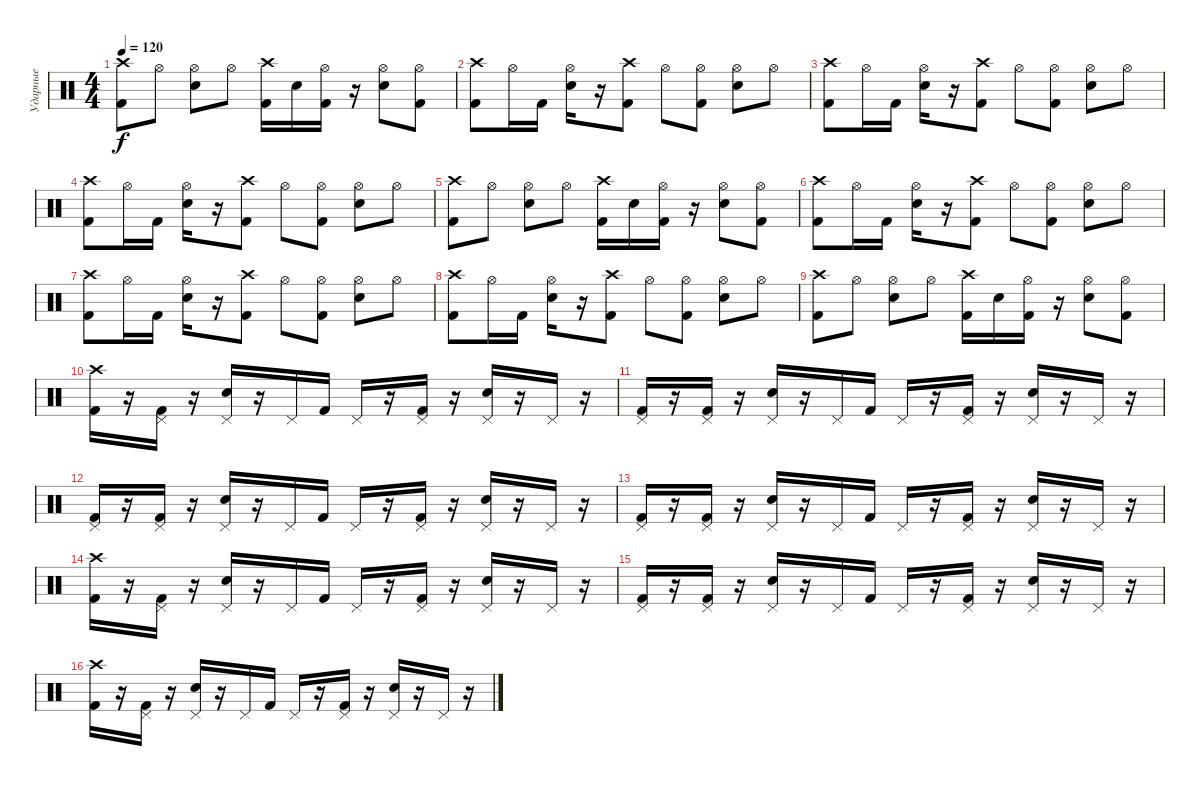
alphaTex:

\track ("Ударные" "Ударные") {instrument percussion}
\staff {score}
\articulation defaults
\ts (4 4)
\tempo 120
\clef neutral
\ks c
("Crash high (hit)" "Kick (hit) 2").8{dy f} "Hi-Hat (open)".8 ("Hi-Hat (open)" "Electric Snare (hit)").8 "Hi-Hat (open)".8 ("Crash high (hit)" "Kick (hit) 2").16 "Electric Snare (hit)".16 ("Hi-Hat (open)" "Kick (hit) 2").16 r.16 ("Hi-Hat (open)" "Electric Snare (hit)").8 ("Hi-Hat (open)" "Kick (hit) 2").8 |
("Crash high (hit)" "Kick (hit) 2").8 "Hi-Hat (open)".16 "Kick (hit) 2".16 ("Hi-Hat (open)" "Electric Snare (hit)").16 r.16 ("Crash high (hit)" "Kick (hit) 2").8 "Hi-Hat (open)".8 ("Hi-Hat (open)" "Kick (hit) 2").8 ("Hi-Hat (open)" "Electric Snare (hit)").8 "Hi-Hat (open)".8 |
("Crash high (hit)" "Kick (hit) 2").8 "Hi-Hat (open)".16 "Kick (hit) 2".16 ("Hi-Hat (open)" "Electric Snare (hit)").16 r.16 ("Crash high (hit)" "Kick (hit) 2").8 "Hi-Hat (open)".8 ("Hi-Hat (open)" "Kick (hit) 2").8 ("Hi-Hat (open)" "Electric Snare (hit)").8 "Hi-Hat (open)".8 |
("Crash high (hit)" "Kick (hit) 2").8 "Hi-Hat (open)".16 "Kick (hit) 2".16 ("Hi-Hat (open)" "Electric Snare (hit)").16 r.16 ("Crash high (hit)" "Kick (hit) 2").8 "Hi-Hat (open)".8 ("Hi-Hat (open)" "Kick (hit) 2").8 ("Hi-Hat (open)" "Electric Snare (hit)").8 "Hi-Hat (open)".8 |
("Crash high (hit)" "Kick (hit) 2").8 "Hi-Hat (open)".8 ("Hi-Hat (open)" "Electric Snare (hit)").8 "Hi-Hat (open)".8 ("Crash high (hit)" "Kick (hit) 2").16 "Electric Snare (hit)".16 ("Hi-Hat (open)" "Kick (hit) 2").16 r.16 ("Hi-Hat (open)" "Electric Snare (hit)").8 ("Hi-Hat (open)" "Kick (hit) 2").8 |
("Crash high (hit)" "Kick (hit) 2").8 "Hi-Hat (open)".16 "Kick (hit) 2".16 ("Hi-Hat (open)" "Electric Snare (hit)").16 r.16 ("Crash high (hit)" "Kick (hit) 2").8 "Hi-Hat (open)".8 ("Hi-Hat (open)" "Kick (hit) 2").8 ("Hi-Hat (open)" "Electric Snare (hit)").8 "Hi-Hat (open)".8 |
("Crash high (hit)" "Kick (hit) 2").8 "Hi-Hat (open)".16 "Kick (hit) 2".16 ("Hi-Hat (open)" "Electric Snare (hit)").16 r.16 ("Crash high (hit)" "Kick (hit) 2").8 "Hi-Hat (open)".8 ("Hi-Hat (open)" "Kick (hit) 2").8 ("Hi-Hat (open)" "Electric Snare (hit)").8 "Hi-Hat (open)".8 |
("Crash high (hit)" "Kick (hit) 2").8 "Hi-Hat (open)".16 "Kick (hit) 2".16 ("Hi-Hat (open)" "Electric Snare (hit)").16 r.16 ("Crash high (hit)" "Kick (hit) 2").8 "Hi-Hat (open)".8 ("Hi-Hat (open)" "Kick (hit) 2").8 ("Hi-Hat (open)" "Electric Snare (hit)").8 "Hi-Hat (open)".8 |
("Crash high (hit)" "Kick (hit) 2").8 "Hi-Hat (open)".8 ("Hi-Hat (open)" "Electric Snare (hit)").8 "Hi-Hat (open)".8 ("Crash high (hit)" "Kick (hit) 2").16 "Electric Snare (hit)".16 ("Hi-Hat (open)" "Kick (hit) 2").16 r.16 ("Hi-Hat (open)" "Electric Snare (hit)").8 ("Hi-Hat (open)" "Kick (hit) 2").8 |
("Crash high (hit)" "Kick (hit) 2").16 r.16 ("Pedal Hi-Hat (hit)" "Kick (hit) 2").16 r.16 ("Pedal Hi-Hat (hit)" "Electric Snare (hit)").16 r.16 "Pedal Hi-Hat (hit)".16 "Kick (hit) 2".16 "Pedal Hi-Hat (hit)".16 r.16 ("Pedal Hi-Hat (hit)" "Kick (hit) 2").16 r.16 ("Pedal Hi-Hat (hit)" "Electric Snare (hit)").16 r.16 "Pedal Hi-Hat (hit)".16 r.16 |
("Pedal Hi-Hat (hit)" "Kick (hit) 2").16 r.16 ("Pedal Hi-Hat (hit)" "Kick (hit) 2").16 r.16 ("Pedal Hi-Hat (hit)" "Electric Snare (hit)").16 r.16 "Pedal Hi-Hat (hit)".16 "Kick (hit) 2".16 "Pedal Hi-Hat (hit)".16 r.16 ("Pedal Hi-Hat (hit)" "Kick (hit) 2").16 r.16 ("Pedal Hi-Hat (hit)" "Electric Snare (hit)").16 r.16 "Pedal Hi-Hat (hit)".16 r.16 |
("Pedal Hi-Hat (hit)" "Kick (hit) 2").16 r.16 ("Pedal Hi-Hat (hit)" "Kick (hit) 2").16 r.16 ("Pedal Hi-Hat (hit)" "Electric Snare (hit)").16 r.16 "Pedal Hi-Hat (hit)".16 "Kick (hit) 2".16 "Pedal Hi-Hat (hit)".16 r.16 ("Pedal Hi-Hat (hit)" "Kick (hit) 2").16 r.16 ("Pedal Hi-Hat (hit)" "Electric Snare (hit)").16 r.16 "Pedal Hi-Hat (hit)".16 r.16 |
("Pedal Hi-Hat (hit)" "Kick (hit) 2").16 r.16 ("Pedal Hi-Hat (hit)" "Kick (hit) 2").16 r.16 ("Pedal Hi-Hat (hit)" "Electric Snare (hit)").16 r.16 "Pedal Hi-Hat (hit)".16 "Kick (hit) 2".16 "Pedal Hi-Hat (hit)".16 r.16 ("Pedal Hi-Hat (hit)" "Kick (hit) 2").16 r.16 ("Pedal Hi-Hat (hit)" "Electric Snare (hit)").16 r.16 "Pedal Hi-Hat (hit)".16 r.16 |
("Crash high (hit)" "Kick (hit) 2").16 r.16 ("Pedal Hi-Hat (hit)" "Kick (hit) 2").16 r.16 ("Pedal Hi-Hat (hit)" "Electric Snare (hit)").16 r.16 "Pedal Hi-Hat (hit)".16 "Kick (hit) 2".16 "Pedal Hi-Hat (hit)".16 r.16 ("Pedal Hi-Hat (hit)" "Kick (hit) 2").16 r.16 ("Pedal Hi-Hat (hit)" "Electric Snare (hit)").16 r.16 "Pedal Hi-Hat (hit)".16 r.16 |
("Pedal Hi-Hat (hit)" "Kick (hit) 2").16 r.16 ("Pedal Hi-Hat (hit)" "Kick (hit) 2").16 r.16 ("Pedal Hi-Hat (hit)" "Electric Snare (hit)").16 r.16 "Pedal Hi-Hat (hit)".16 "Kick (hit) 2".16 "Pedal Hi-Hat (hit)".16 r.16 ("Pedal Hi-Hat (hit)" "Kick (hit) 2").16 r.16 ("Pedal Hi-Hat (hit)" "Electric Snare (hit)").16 r.16 "Pedal Hi-Hat (hit)".16 r.16 |
("Crash high (hit)" "Kick (hit) 2").16 r.16 ("Pedal Hi-Hat (hit)" "Kick (hit) 2").16 r.16 ("Pedal Hi-Hat (hit)" "Electric Snare (hit)").16 r.16 "Pedal Hi-Hat (hit)".16 "Kick (hit) 2".16 "Pedal Hi-Hat (hit)".16 r.16 ("Pedal Hi-Hat (hit)" "Kick (hit) 2").16 r.16 ("Pedal Hi-Hat (hit)" "Electric Snare (hit)").16 r.16 "Pedal Hi-Hat (hit)".16 r.16
